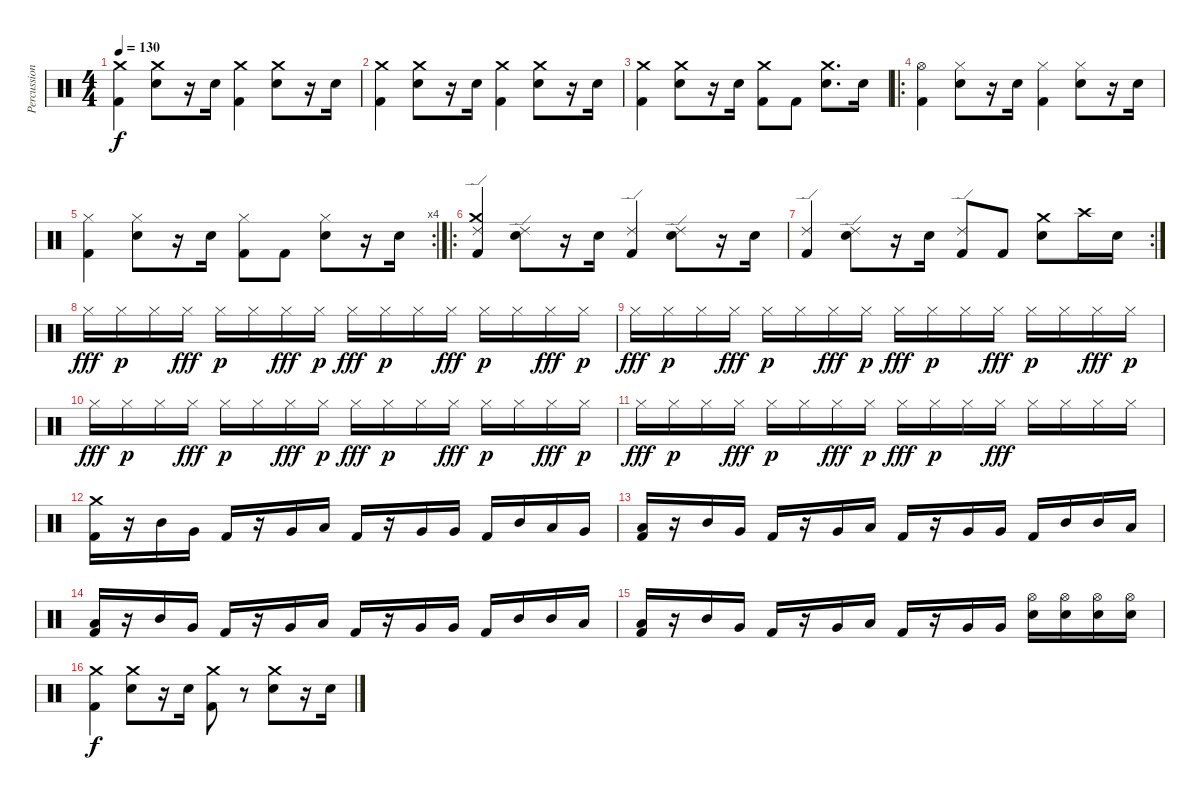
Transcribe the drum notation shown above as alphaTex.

\track ("Percussions" "Percussion") {instrument percussion}
\staff {score}
\articulation defaults
\ts (4 4)
\tempo 130
\clef neutral
\ks c
("Kick (hit) 2" "Crash medium (hit)").4{dy f} ("Electric Snare (hit)" "Crash medium (hit)").8 r.16 "Electric Snare (hit)".16 ("Kick (hit) 2" "Crash medium (hit)").4 ("Electric Snare (hit)" "Crash medium (hit)").8 r.16 "Electric Snare (hit)".16 |
("Kick (hit) 2" "Crash medium (hit)").4 ("Electric Snare (hit)" "Crash medium (hit)").8 r.16 "Electric Snare (hit)".16 ("Kick (hit) 2" "Crash medium (hit)").4 ("Electric Snare (hit)" "Crash medium (hit)").8 r.16 "Electric Snare (hit)".16 |
("Kick (hit) 2" "Crash medium (hit)").4 ("Electric Snare (hit)" "Crash medium (hit)").8 r.16 "Electric Snare (hit)".16 ("Kick (hit) 2" "Crash medium (hit)").8 "Kick (hit) 2".8 ("Electric Snare (hit)" "Crash medium (hit)").8{d} "Electric Snare (hit)".16 |
\ro
("Kick (hit) 2" "Hi-Hat (open)").4 ("Electric Snare (hit)" "Hi-Hat (closed)").8 r.16 "Electric Snare (hit)".16 ("Kick (hit) 2" "Hi-Hat (closed)").4 ("Electric Snare (hit)" "Hi-Hat (closed)").8 r.16 "Electric Snare (hit)".16 |
\rc 4
("Kick (hit) 2" "Hi-Hat (closed)").4 ("Electric Snare (hit)" "Hi-Hat (closed)").8 r.16 "Electric Snare (hit)".16 ("Kick (hit) 2" "Hi-Hat (closed)").8 "Kick (hit) 2".8 ("Electric Snare (hit)" "Hi-Hat (closed)").8 r.16 "Electric Snare (hit)".16 |
\ro
("Kick (hit) 2" "Ride (edge) 2" "Crash medium (hit)").4 ("Electric Snare (hit)" "Ride (edge) 2").8 r.16 "Electric Snare (hit)".16 ("Kick (hit) 2" "Ride (edge) 2").4 ("Electric Snare (hit)" "Ride (edge) 2").8 r.16 "Electric Snare (hit)".16 |
\rc 2
("Kick (hit) 2" "Ride (edge) 2").4 ("Electric Snare (hit)" "Ride (edge) 2").8 r.16 "Electric Snare (hit)".16 ("Kick (hit) 2" "Ride (edge) 2").8 "Kick (hit) 2".8 ("Electric Snare (hit)" "Crash medium (hit)").8 "Crash high (hit)".16 "Electric Snare (hit)".16 |
"Hi-Hat (closed)".16{dy fff} "Hi-Hat (closed)".16{dy p} "Hi-Hat (closed)".16 "Hi-Hat (closed)".16{dy fff} "Hi-Hat (closed)".16{dy p} "Hi-Hat (closed)".16 "Hi-Hat (closed)".16{dy fff} "Hi-Hat (closed)".16{dy p} "Hi-Hat (closed)".16{dy fff} "Hi-Hat (closed)".16{dy p} "Hi-Hat (closed)".16 "Hi-Hat (closed)".16{dy fff} "Hi-Hat (closed)".16{dy p} "Hi-Hat (closed)".16 "Hi-Hat (closed)".16{dy fff} "Hi-Hat (closed)".16{dy p} |
"Hi-Hat (closed)".16{dy fff} "Hi-Hat (closed)".16{dy p} "Hi-Hat (closed)".16 "Hi-Hat (closed)".16{dy fff} "Hi-Hat (closed)".16{dy p} "Hi-Hat (closed)".16 "Hi-Hat (closed)".16{dy fff} "Hi-Hat (closed)".16{dy p} "Hi-Hat (closed)".16{dy fff} "Hi-Hat (closed)".16{dy p} "Hi-Hat (closed)".16 "Hi-Hat (closed)".16{dy fff} "Hi-Hat (closed)".16{dy p} "Hi-Hat (closed)".16 "Hi-Hat (closed)".16{dy fff} "Hi-Hat (closed)".16{dy p} |
"Hi-Hat (closed)".16{dy fff} "Hi-Hat (closed)".16{dy p} "Hi-Hat (closed)".16 "Hi-Hat (closed)".16{dy fff} "Hi-Hat (closed)".16{dy p} "Hi-Hat (closed)".16 "Hi-Hat (closed)".16{dy fff} "Hi-Hat (closed)".16{dy p} "Hi-Hat (closed)".16{dy fff} "Hi-Hat (closed)".16{dy p} "Hi-Hat (closed)".16 "Hi-Hat (closed)".16{dy fff} "Hi-Hat (closed)".16{dy p} "Hi-Hat (closed)".16 "Hi-Hat (closed)".16{dy fff} "Hi-Hat (closed)".16{dy p} |
"Hi-Hat (closed)".16{dy fff} "Hi-Hat (closed)".16{dy p} "Hi-Hat (closed)".16 "Hi-Hat (closed)".16{dy fff} "Hi-Hat (closed)".16{dy p} "Hi-Hat (closed)".16 "Hi-Hat (closed)".16{dy fff} "Hi-Hat (closed)".16{dy p} "Hi-Hat (closed)".16{dy fff} "Hi-Hat (closed)".16{dy p} "Hi-Hat (closed)".16 "Hi-Hat (closed)".16{dy fff} "Hi-Hat (closed)".16 "Hi-Hat (closed)".16 "Hi-Hat (closed)".16 "Hi-Hat (closed)".16 |
("Crash medium (hit)" "Kick (hit) 2").16 r.16 "Mid Tom (hit)".16 "Very Low Tom (hit)".16 "Kick (hit) 2".16 r.16 "Very Low Tom (hit)".16 "Low Tom (hit)".16 "Kick (hit) 2".16 r.16 "Very Low Tom (hit)".16 "Very Low Tom (hit)".16 "Kick (hit) 2".16 "Mid Tom (hit)".16 "Low Tom (hit)".16 "Very Low Tom (hit)".16 |
("Low Tom (hit)" "Kick (hit) 2").16 r.16 "Mid Tom (hit)".16 "Very Low Tom (hit)".16 "Kick (hit) 2".16 r.16 "Very Low Tom (hit)".16 "Low Tom (hit)".16 "Kick (hit) 2".16 r.16 "Very Low Tom (hit)".16 "Very Low Tom (hit)".16 "Kick (hit) 2".16 "Mid Tom (hit)".16 "Mid Tom (hit)".16 "Low Tom (hit)".16 |
("Low Tom (hit)" "Kick (hit) 2").16 r.16 "Mid Tom (hit)".16 "Very Low Tom (hit)".16 "Kick (hit) 2".16 r.16 "Very Low Tom (hit)".16 "Low Tom (hit)".16 "Kick (hit) 2".16 r.16 "Very Low Tom (hit)".16 "Very Low Tom (hit)".16 "Kick (hit) 2".16 "Mid Tom (hit)".16 "Mid Tom (hit)".16 "Low Tom (hit)".16 |
("Low Tom (hit)" "Kick (hit) 2").16 r.16 "Mid Tom (hit)".16 "Very Low Tom (hit)".16 "Kick (hit) 2".16 r.16 "Very Low Tom (hit)".16 "Low Tom (hit)".16 "Kick (hit) 2".16 r.16 "Very Low Tom (hit)".16 "Very Low Tom (hit)".16 ("Electric Snare (hit)" "Hi-Hat (open)").16 ("Electric Snare (hit)" "Hi-Hat (open)").16 ("Electric Snare (hit)" "Hi-Hat (open)").16 ("Electric Snare (hit)" "Hi-Hat (open)").16 |
("Kick (hit) 2" "Crash medium (hit)").4{dy f} ("Electric Snare (hit)" "Crash medium (hit)").8 r.16 "Electric Snare (hit)".16 ("Kick (hit) 2" "Crash medium (hit)").8 r.8 ("Electric Snare (hit)" "Crash medium (hit)").8 r.16 "Electric Snare (hit)".16
